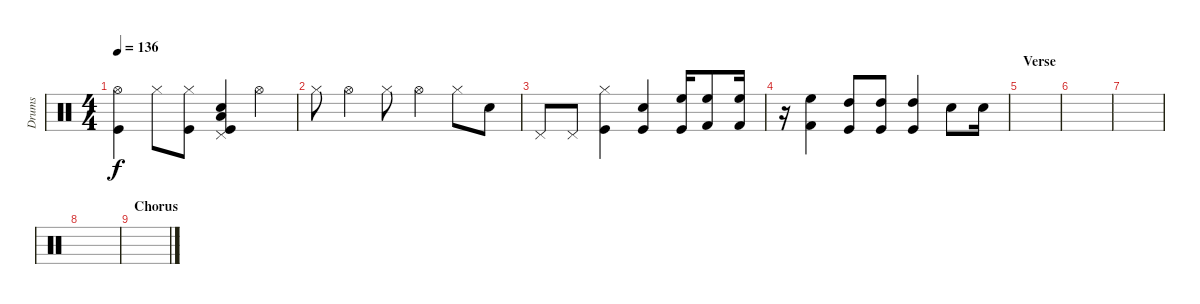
\track ("Drums" "Drums") {instrument percussion}
\staff {score}
\articulation defaults
\ts (4 4)
\tempo 136
\clef neutral
\ks c
("Hi-Hat (open)" "Kick (hit)").4{dy f} "Hi-Hat (closed)".8 ("Hi-Hat (closed)" "Kick (hit)").8 ("Pedal Hi-Hat (hit)" "Snare (hit) 2" "Kick (hit)" "Low Tom (hit)").4 "Hi-Hat (open)".4 |
"Hi-Hat (closed)".8 "Hi-Hat (open)".4 "Hi-Hat (closed)".8 "Hi-Hat (open)".4 "Hi-Hat (closed)".8 "Snare (hit) 2".8 |
"Pedal Hi-Hat (hit)".8 "Pedal Hi-Hat (hit)".8 ("Hi-Hat (closed)" "Kick (hit)").4 ("Snare (hit) 2" "Kick (hit)").4 ("Kick (hit)" "High Floor Tom (hit)").16 ("Kick (hit) 2" "High Floor Tom (hit)").8 ("Kick (hit) 2" "High Floor Tom (hit)").16 |
r.16 ("Kick (hit) 2" "High Floor Tom (hit)").4 ("Kick (hit)" "High Tom (hit)").8 ("Kick (hit)" "High Tom (hit)").8 ("Kick (hit)" "High Tom (hit)").4 "Snare (hit)"{x}.8 "Snare (hit)"{x}.16 |
\section ("" "Verse")
|
|
|
|
\section ("" "Chorus")
